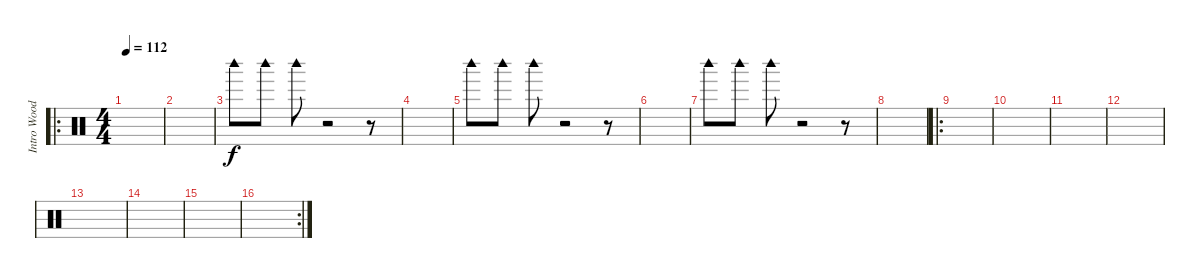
\track ("Intro Woodblock" "Intro Wood") {instrument percussion}
\staff {score}
\articulation defaults
\ro
\ts (4 4)
\tempo 112
\clef neutral
\ks c
|
|
"Woodblock high (hit)".8 "Woodblock high (hit)".8 "Woodblock high (hit)".8 r.2 r.8 |
|
"Woodblock high (hit)".8 "Woodblock high (hit)".8 "Woodblock high (hit)".8 r.2 r.8 |
|
"Woodblock high (hit)".8 "Woodblock high (hit)".8 "Woodblock high (hit)".8 r.2 r.8 |
|
\ro
|
|
|
|
|
|
|
\rc 2
